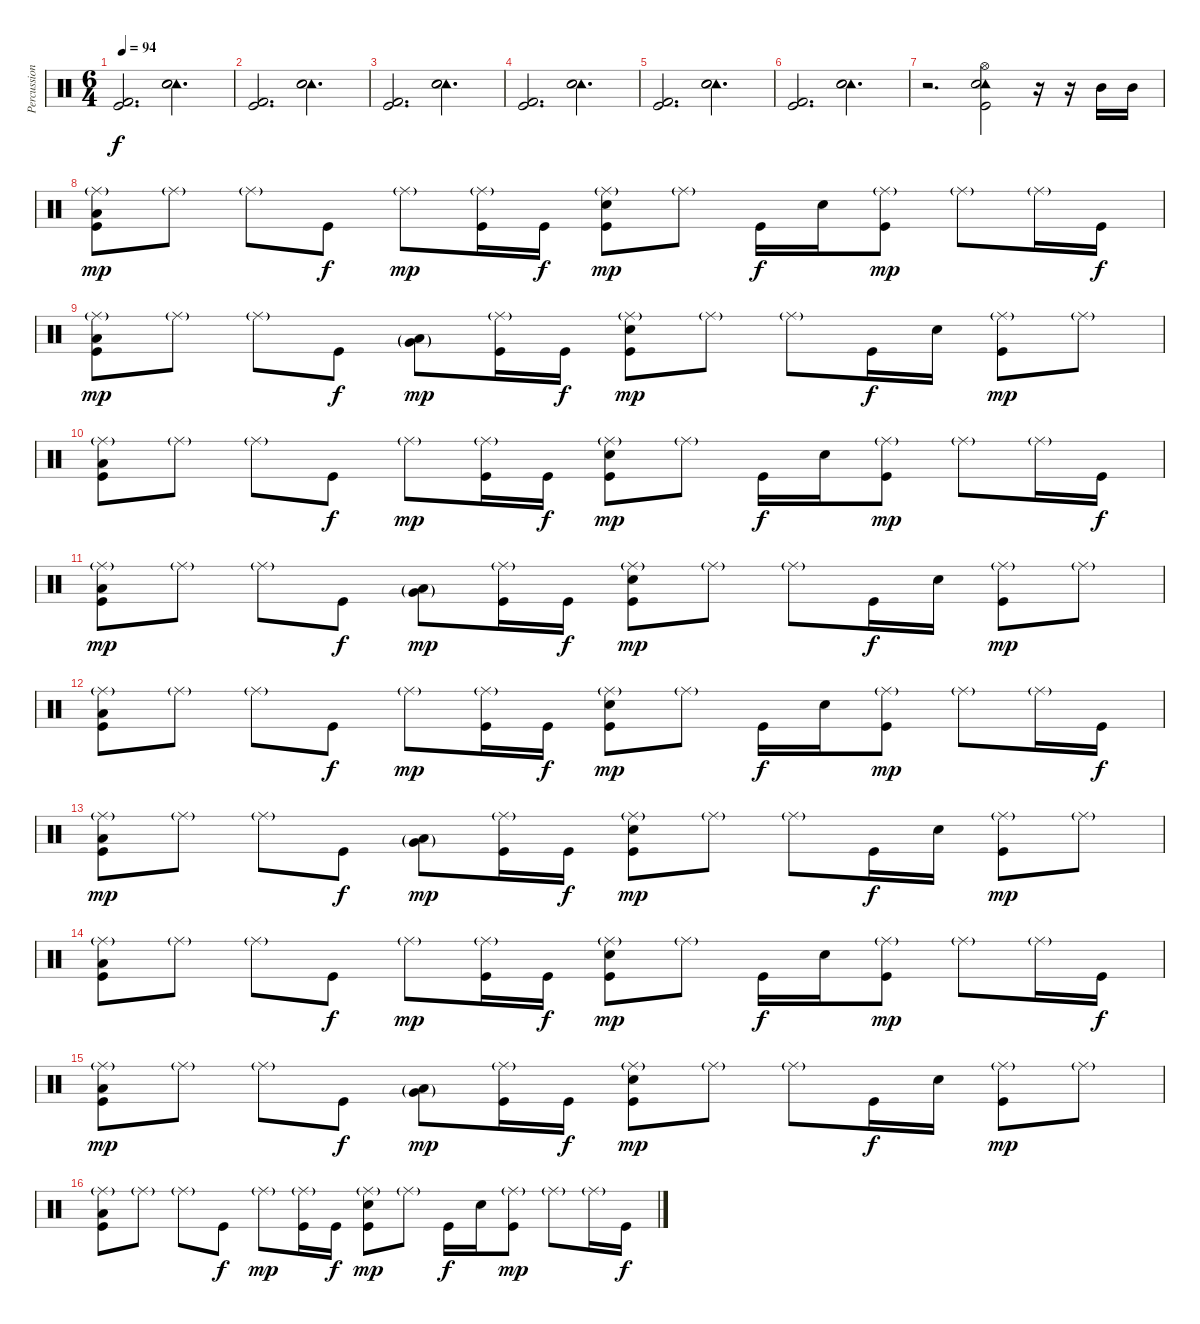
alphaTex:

\track ("Percussion" "Percussion") {instrument percussion}
\staff {score}
\articulation defaults
\ts (6 4)
\tempo 94
\clef neutral
\ks c
("Kick (hit) 2" "Kick (hit)").2{d dy f} ("Tambourine (hit)" "Snare (hit) 2" "Electric Snare (hit)").2{d} |
("Kick (hit) 2" "Kick (hit)").2{d} ("Tambourine (hit)" "Snare (hit) 2" "Electric Snare (hit)").2{d} |
("Kick (hit) 2" "Kick (hit)").2{d} ("Tambourine (hit)" "Snare (hit) 2" "Electric Snare (hit)").2{d} |
("Kick (hit) 2" "Kick (hit)").2{d} ("Tambourine (hit)" "Snare (hit) 2" "Electric Snare (hit)").2{d} |
("Kick (hit) 2" "Kick (hit)").2{d} ("Tambourine (hit)" "Snare (hit) 2" "Electric Snare (hit)").2{d} |
("Kick (hit) 2" "Kick (hit)").2{d} ("Tambourine (hit)" "Snare (hit) 2" "Electric Snare (hit)").2{d} |
r.2{d} ("Tambourine (hit)" "Hi-Hat (open)" "Electric Snare (hit)" "Kick (hit)").2 r.16 r.16 "Mid Tom (hit)".16 "Mid Tom (hit)".16 |
("Ride (middle)"{g} "Low Floor Tom (hit)" "Kick (hit)").8{dy mp} "Ride (middle)"{g}.8 "Ride (middle)"{g}.8 "Kick (hit)".8{dy f} "Ride (middle)"{g}.8{dy mp} ("Ride (middle)"{g} "Kick (hit)").16 "Kick (hit)".16{dy f} ("Ride (middle)"{g} "Electric Snare (hit)" "Kick (hit)").8{dy mp} "Ride (middle)"{g}.8 "Kick (hit)".16{dy f} "Electric Snare (hit)".16 ("Ride (middle)"{g} "Kick (hit)").8{dy mp} "Ride (middle)"{g}.8 "Ride (middle)"{g}.16 "Kick (hit)".16{dy f} |
("Ride (middle)"{g} "Low Floor Tom (hit)" "Kick (hit)").8{dy mp} "Ride (middle)"{g}.8 "Ride (middle)"{g}.8 "Kick (hit)".8{dy f} ("Very Low Tom (hit)"{g} "Low Floor Tom (hit)"{g}).8{dy mp} ("Ride (middle)"{g} "Kick (hit)").16 "Kick (hit)".16{dy f} ("Ride (middle)"{g} "Electric Snare (hit)" "Kick (hit)").8{dy mp} "Ride (middle)"{g}.8 "Ride (middle)"{g}.8 "Kick (hit)".16{dy f} "Electric Snare (hit)".16 ("Ride (middle)"{g} "Kick (hit)").8{dy mp} "Ride (middle)"{g}.8 |
("Ride (middle)"{g} "Low Floor Tom (hit)" "Kick (hit)").8 "Ride (middle)"{g}.8 "Ride (middle)"{g}.8 "Kick (hit)".8{dy f} "Ride (middle)"{g}.8{dy mp} ("Ride (middle)"{g} "Kick (hit)").16 "Kick (hit)".16{dy f} ("Ride (middle)"{g} "Electric Snare (hit)" "Kick (hit)").8{dy mp} "Ride (middle)"{g}.8 "Kick (hit)".16{dy f} "Electric Snare (hit)".16 ("Ride (middle)"{g} "Kick (hit)").8{dy mp} "Ride (middle)"{g}.8 "Ride (middle)"{g}.16 "Kick (hit)".16{dy f} |
("Ride (middle)"{g} "Low Floor Tom (hit)" "Kick (hit)").8{dy mp} "Ride (middle)"{g}.8 "Ride (middle)"{g}.8 "Kick (hit)".8{dy f} ("Low Floor Tom (hit)"{g} "Very Low Tom (hit)"{g}).8{dy mp} ("Ride (middle)"{g} "Kick (hit)").16 "Kick (hit)".16{dy f} ("Ride (middle)"{g} "Electric Snare (hit)" "Kick (hit)").8{dy mp} "Ride (middle)"{g}.8 "Ride (middle)"{g}.8 "Kick (hit)".16{dy f} "Electric Snare (hit)".16 ("Ride (middle)"{g} "Kick (hit)").8{dy mp} "Ride (middle)"{g}.8 |
("Ride (middle)"{g} "Low Floor Tom (hit)" "Kick (hit)").8 "Ride (middle)"{g}.8 "Ride (middle)"{g}.8 "Kick (hit)".8{dy f} "Ride (middle)"{g}.8{dy mp} ("Ride (middle)"{g} "Kick (hit)").16 "Kick (hit)".16{dy f} ("Ride (middle)"{g} "Electric Snare (hit)" "Kick (hit)").8{dy mp} "Ride (middle)"{g}.8 "Kick (hit)".16{dy f} "Electric Snare (hit)".16 ("Ride (middle)"{g} "Kick (hit)").8{dy mp} "Ride (middle)"{g}.8 "Ride (middle)"{g}.16 "Kick (hit)".16{dy f} |
("Ride (middle)"{g} "Low Floor Tom (hit)" "Kick (hit)").8{dy mp} "Ride (middle)"{g}.8 "Ride (middle)"{g}.8 "Kick (hit)".8{dy f} ("Low Floor Tom (hit)"{g} "Very Low Tom (hit)"{g}).8{dy mp} ("Ride (middle)"{g} "Kick (hit)").16 "Kick (hit)".16{dy f} ("Ride (middle)"{g} "Electric Snare (hit)" "Kick (hit)").8{dy mp} "Ride (middle)"{g}.8 "Ride (middle)"{g}.8 "Kick (hit)".16{dy f} "Electric Snare (hit)".16 ("Ride (middle)"{g} "Kick (hit)").8{dy mp} "Ride (middle)"{g}.8 |
("Ride (middle)"{g} "Low Floor Tom (hit)" "Kick (hit)").8 "Ride (middle)"{g}.8 "Ride (middle)"{g}.8 "Kick (hit)".8{dy f} "Ride (middle)"{g}.8{dy mp} ("Ride (middle)"{g} "Kick (hit)").16 "Kick (hit)".16{dy f} ("Ride (middle)"{g} "Electric Snare (hit)" "Kick (hit)").8{dy mp} "Ride (middle)"{g}.8 "Kick (hit)".16{dy f} "Electric Snare (hit)".16 ("Ride (middle)"{g} "Kick (hit)").8{dy mp} "Ride (middle)"{g}.8 "Ride (middle)"{g}.16 "Kick (hit)".16{dy f} |
("Ride (middle)"{g} "Low Floor Tom (hit)" "Kick (hit)").8{dy mp} "Ride (middle)"{g}.8 "Ride (middle)"{g}.8 "Kick (hit)".8{dy f} ("Low Floor Tom (hit)"{g} "Very Low Tom (hit)"{g}).8{dy mp} ("Ride (middle)"{g} "Kick (hit)").16 "Kick (hit)".16{dy f} ("Ride (middle)"{g} "Electric Snare (hit)" "Kick (hit)").8{dy mp} "Ride (middle)"{g}.8 "Ride (middle)"{g}.8 "Kick (hit)".16{dy f} "Electric Snare (hit)".16 ("Ride (middle)"{g} "Kick (hit)").8{dy mp} "Ride (middle)"{g}.8 |
("Ride (middle)"{g} "Low Floor Tom (hit)" "Kick (hit)").8 "Ride (middle)"{g}.8 "Ride (middle)"{g}.8 "Kick (hit)".8{dy f} "Ride (middle)"{g}.8{dy mp} ("Ride (middle)"{g} "Kick (hit)").16 "Kick (hit)".16{dy f} ("Ride (middle)"{g} "Electric Snare (hit)" "Kick (hit)").8{dy mp} "Ride (middle)"{g}.8 "Kick (hit)".16{dy f} "Electric Snare (hit)".16 ("Ride (middle)"{g} "Kick (hit)").8{dy mp} "Ride (middle)"{g}.8 "Ride (middle)"{g}.16 "Kick (hit)".16{dy f}
